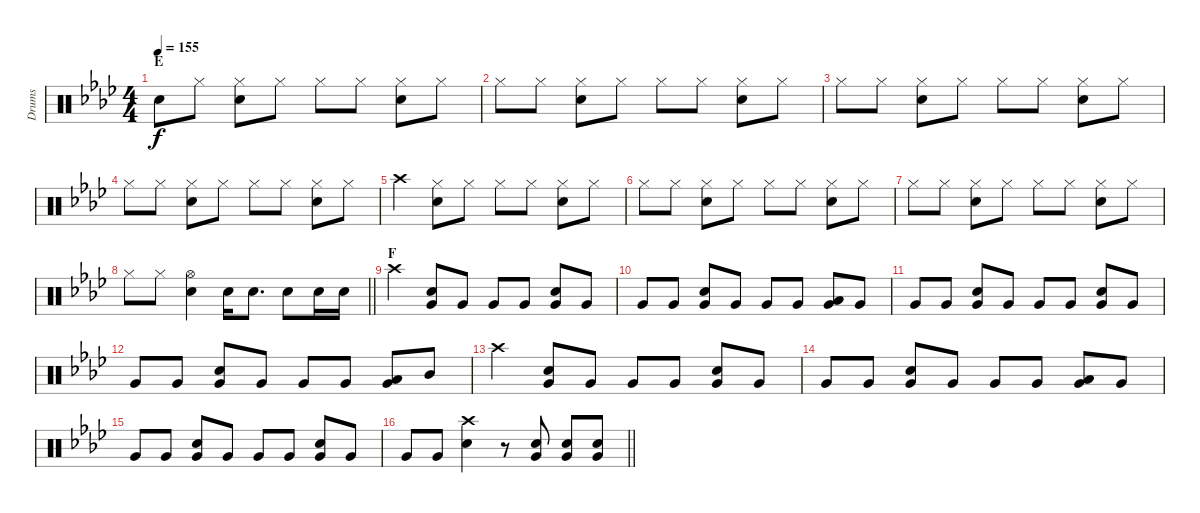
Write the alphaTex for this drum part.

\track ("Drums" "Drums") {instrument percussion}
\staff {score}
\articulation defaults
\ts (4 4)
\section ("" "E")
\tempo 155
\clef neutral
\ks ab "Snare (hit)"{t}.8{dy f} "Hi-Hat (closed)".8
("Hi-Hat (closed)" "Snare (hit) 2").8 "Hi-Hat (closed)".8 "Hi-Hat (closed)".8 "Hi-Hat (closed)".8 ("Hi-Hat (closed)" "Snare (hit) 2").8 "Hi-Hat (closed)".8 |
"Hi-Hat (closed)".8 "Hi-Hat (closed)".8 ("Hi-Hat (closed)" "Snare (hit) 2").8 "Hi-Hat (closed)".8 "Hi-Hat (closed)".8 "Hi-Hat (closed)".8 ("Hi-Hat (closed)" "Snare (hit) 2").8 "Hi-Hat (closed)".8 |
"Hi-Hat (closed)".8 "Hi-Hat (closed)".8 ("Hi-Hat (closed)" "Snare (hit) 2").8 "Hi-Hat (closed)".8 "Hi-Hat (closed)".8 "Hi-Hat (closed)".8 ("Hi-Hat (closed)" "Snare (hit) 2").8 "Hi-Hat (closed)".8 |
"Hi-Hat (closed)".8 "Hi-Hat (closed)".8 ("Hi-Hat (closed)" "Snare (hit) 2").8 "Hi-Hat (closed)".8 "Hi-Hat (closed)".8 "Hi-Hat (closed)".8 ("Hi-Hat (closed)" "Snare (hit) 2").8 "Hi-Hat (closed)".8 |
"Crash high (hit)".4 ("Hi-Hat (closed)" "Snare (hit) 2").8 "Hi-Hat (closed)".8 "Hi-Hat (closed)".8 "Hi-Hat (closed)".8 ("Hi-Hat (closed)" "Snare (hit) 2").8 "Hi-Hat (closed)".8 |
"Hi-Hat (closed)".8 "Hi-Hat (closed)".8 ("Hi-Hat (closed)" "Snare (hit) 2").8 "Hi-Hat (closed)".8 "Hi-Hat (closed)".8 "Hi-Hat (closed)".8 ("Hi-Hat (closed)" "Snare (hit) 2").8 "Hi-Hat (closed)".8 |
"Hi-Hat (closed)".8 "Hi-Hat (closed)".8 ("Hi-Hat (closed)" "Snare (hit) 2").8 "Hi-Hat (closed)".8 "Hi-Hat (closed)".8 "Hi-Hat (closed)".8 ("Hi-Hat (closed)" "Snare (hit) 2").8 "Hi-Hat (closed)".8 |
\barLineRight lightlight "Hi-Hat (closed)".8 "Hi-Hat (closed)".8
("Hi-Hat (open)" "Snare (hit) 2").4 "Snare (hit) 2".16 "Snare (hit) 2".8{d} "Snare (hit) 2".8 "Snare (hit) 2".16 "Snare (hit) 2".16 |
\section ("" "F")
"Crash high (hit)".4 ("Very Low Tom (hit)" "Snare (hit) 2").8 "Very Low Tom (hit)".8 "Very Low Tom (hit)".8 "Very Low Tom (hit)".8 ("Very Low Tom (hit)" "Snare (hit) 2").8 "Very Low Tom (hit)".8 |
"Very Low Tom (hit)".8 "Very Low Tom (hit)".8 ("Very Low Tom (hit)" "Snare (hit) 2").8 "Very Low Tom (hit)".8 "Very Low Tom (hit)".8 "Very Low Tom (hit)".8 ("Very Low Tom (hit)" "Low Tom (hit)").8 "Very Low Tom (hit)".8 |
"Very Low Tom (hit)".8 "Very Low Tom (hit)".8 ("Very Low Tom (hit)" "Snare (hit) 2").8 "Very Low Tom (hit)".8 "Very Low Tom (hit)".8 "Very Low Tom (hit)".8 ("Very Low Tom (hit)" "Snare (hit) 2").8 "Very Low Tom (hit)".8 |
"Very Low Tom (hit)".8 "Very Low Tom (hit)".8 ("Very Low Tom (hit)" "Snare (hit) 2").8 "Very Low Tom (hit)".8 "Very Low Tom (hit)".8 "Very Low Tom (hit)".8 ("Very Low Tom (hit)" "Low Tom (hit)").8 "Mid Tom (hit)".8 |
"Crash high (hit)".4 ("Very Low Tom (hit)" "Snare (hit) 2").8 "Very Low Tom (hit)".8 "Very Low Tom (hit)".8 "Very Low Tom (hit)".8 ("Very Low Tom (hit)" "Snare (hit) 2").8 "Very Low Tom (hit)".8 |
"Very Low Tom (hit)".8 "Very Low Tom (hit)".8 ("Very Low Tom (hit)" "Snare (hit) 2").8 "Very Low Tom (hit)".8 "Very Low Tom (hit)".8 "Very Low Tom (hit)".8 ("Very Low Tom (hit)" "Low Tom (hit)").8 "Very Low Tom (hit)".8 |
"Very Low Tom (hit)".8 "Very Low Tom (hit)".8 ("Very Low Tom (hit)" "Snare (hit) 2").8 "Very Low Tom (hit)".8 "Very Low Tom (hit)".8 "Very Low Tom (hit)".8 ("Very Low Tom (hit)" "Snare (hit) 2").8 "Very Low Tom (hit)".8 |
\barLineRight lightlight "Very Low Tom (hit)".8 "Very Low Tom (hit)".8
("Snare (hit) 2" "Crash high (hit)").4 r.8 ("Very Low Tom (hit)" "Snare (hit) 2").8 ("Very Low Tom (hit)" "Snare (hit) 2").8 ("Very Low Tom (hit)" "Snare (hit) 2").8
